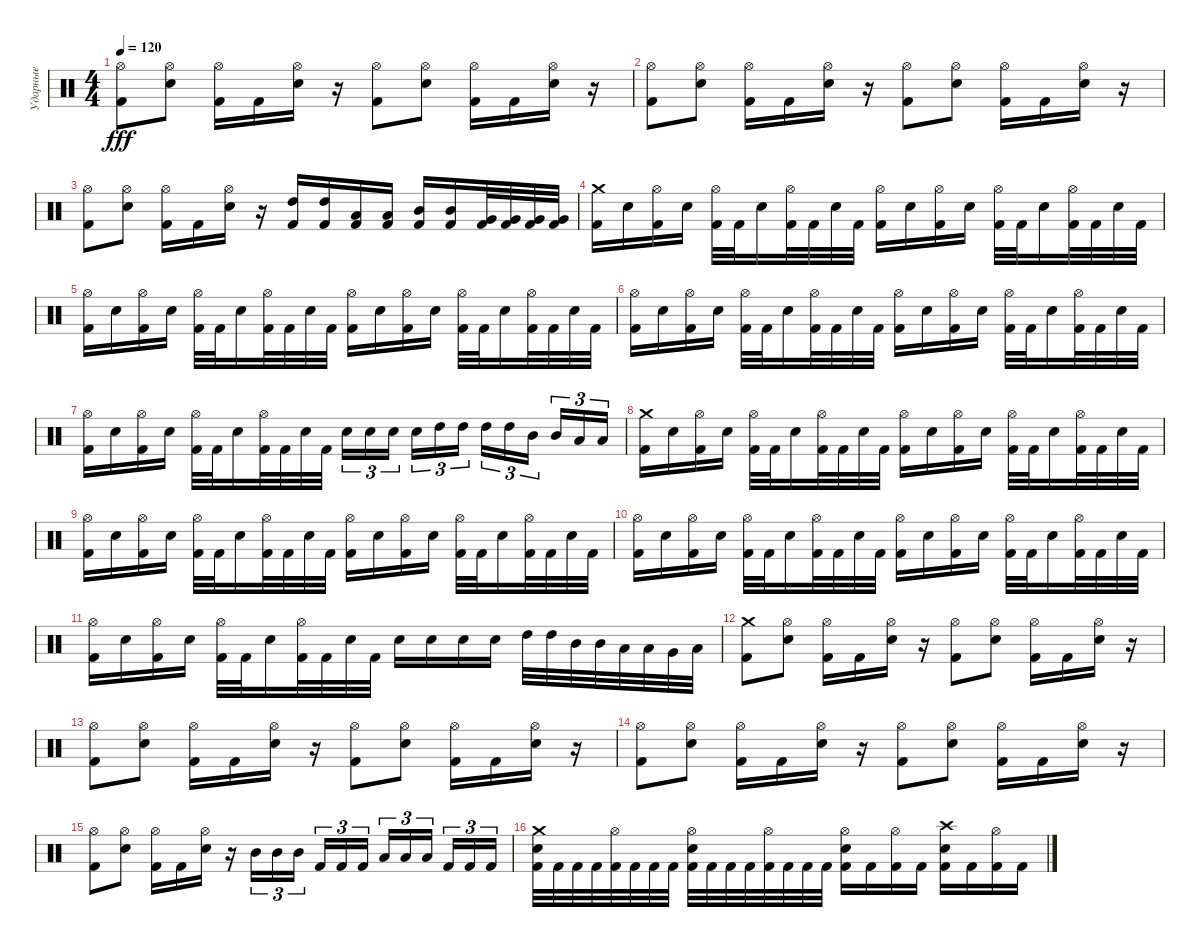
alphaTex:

\track ("Ударные" "Ударные") {instrument percussion}
\staff {score}
\articulation defaults
\ts (4 4)
\tempo 120
\clef neutral
\ks c
("Hi-Hat (open)" "Kick (hit) 2").8{dy fff} ("Hi-Hat (open)" "Electric Snare (hit)").8 ("Hi-Hat (open)" "Kick (hit) 2").16 "Kick (hit) 2".16 ("Hi-Hat (open)" "Electric Snare (hit)").16 r.16 ("Hi-Hat (open)" "Kick (hit) 2").8 ("Hi-Hat (open)" "Electric Snare (hit)").8 ("Hi-Hat (open)" "Kick (hit) 2").16 "Kick (hit) 2".16 ("Hi-Hat (open)" "Electric Snare (hit)").16 r.16 |
("Hi-Hat (open)" "Kick (hit) 2").8 ("Hi-Hat (open)" "Electric Snare (hit)").8 ("Hi-Hat (open)" "Kick (hit) 2").16 "Kick (hit) 2".16 ("Hi-Hat (open)" "Electric Snare (hit)").16 r.16 ("Hi-Hat (open)" "Kick (hit) 2").8 ("Hi-Hat (open)" "Electric Snare (hit)").8 ("Hi-Hat (open)" "Kick (hit) 2").16 "Kick (hit) 2".16 ("Hi-Hat (open)" "Electric Snare (hit)").16 r.16 |
("Hi-Hat (open)" "Kick (hit) 2").8 ("Hi-Hat (open)" "Electric Snare (hit)").8 ("Hi-Hat (open)" "Kick (hit) 2").16 "Kick (hit) 2".16 ("Hi-Hat (open)" "Electric Snare (hit)").16 r.16 ("High Tom (hit)" "Kick (hit) 2").16 ("High Tom (hit)" "Kick (hit) 2").16 ("Low Tom (hit)" "Kick (hit) 2").16 ("Low Tom (hit)" "Kick (hit) 2").16 ("Mid Tom (hit)" "Kick (hit) 2").16 ("Mid Tom (hit)" "Kick (hit) 2").16 ("Very Low Tom (hit)" "Kick (hit) 2").32 ("Very Low Tom (hit)" "Kick (hit) 2").32 ("Very Low Tom (hit)" "Kick (hit) 2").32 ("Very Low Tom (hit)" "Kick (hit) 2").32 |
("Crash medium (hit)" "Kick (hit) 2").16 "Electric Snare (hit)".16 ("Hi-Hat (open)" "Kick (hit) 2").16 "Electric Snare (hit)".16 ("Hi-Hat (open)" "Kick (hit) 2").32 "Kick (hit) 2".32 "Electric Snare (hit)".16 ("Hi-Hat (open)" "Kick (hit) 2").32 "Kick (hit) 2".32 "Electric Snare (hit)".32 "Kick (hit) 2".32 ("Hi-Hat (open)" "Kick (hit) 2").16 "Electric Snare (hit)".16 ("Hi-Hat (open)" "Kick (hit) 2").16 "Electric Snare (hit)".16 ("Hi-Hat (open)" "Kick (hit) 2").32 "Kick (hit) 2".32 "Electric Snare (hit)".16 ("Hi-Hat (open)" "Kick (hit) 2").32 "Kick (hit) 2".32 "Electric Snare (hit)".32 "Kick (hit) 2".32 |
("Hi-Hat (open)" "Kick (hit) 2").16 "Electric Snare (hit)".16 ("Hi-Hat (open)" "Kick (hit) 2").16 "Electric Snare (hit)".16 ("Hi-Hat (open)" "Kick (hit) 2").32 "Kick (hit) 2".32 "Electric Snare (hit)".16 ("Hi-Hat (open)" "Kick (hit) 2").32 "Kick (hit) 2".32 "Electric Snare (hit)".32 "Kick (hit) 2".32 ("Hi-Hat (open)" "Kick (hit) 2").16 "Electric Snare (hit)".16 ("Hi-Hat (open)" "Kick (hit) 2").16 "Electric Snare (hit)".16 ("Hi-Hat (open)" "Kick (hit) 2").32 "Kick (hit) 2".32 "Electric Snare (hit)".16 ("Hi-Hat (open)" "Kick (hit) 2").32 "Kick (hit) 2".32 "Electric Snare (hit)".32 "Kick (hit) 2".32 |
("Hi-Hat (open)" "Kick (hit) 2").16 "Electric Snare (hit)".16 ("Hi-Hat (open)" "Kick (hit) 2").16 "Electric Snare (hit)".16 ("Hi-Hat (open)" "Kick (hit) 2").32 "Kick (hit) 2".32 "Electric Snare (hit)".16 ("Hi-Hat (open)" "Kick (hit) 2").32 "Kick (hit) 2".32 "Electric Snare (hit)".32 "Kick (hit) 2".32 ("Hi-Hat (open)" "Kick (hit) 2").16 "Electric Snare (hit)".16 ("Hi-Hat (open)" "Kick (hit) 2").16 "Electric Snare (hit)".16 ("Hi-Hat (open)" "Kick (hit) 2").32 "Kick (hit) 2".32 "Electric Snare (hit)".16 ("Hi-Hat (open)" "Kick (hit) 2").32 "Kick (hit) 2".32 "Electric Snare (hit)".32 "Kick (hit) 2".32 |
("Hi-Hat (open)" "Kick (hit) 2").16 "Electric Snare (hit)".16 ("Hi-Hat (open)" "Kick (hit) 2").16 "Electric Snare (hit)".16 ("Hi-Hat (open)" "Kick (hit) 2").32 "Kick (hit) 2".32 "Electric Snare (hit)".16 ("Hi-Hat (open)" "Kick (hit) 2").32 "Kick (hit) 2".32 "Electric Snare (hit)".32 "Kick (hit) 2".32 "Electric Snare (hit)".16{tu (3 2)} "Electric Snare (hit)".16{tu (3 2)} "Electric Snare (hit)".16{tu (3 2) beam splitsecondary} "Electric Snare (hit)".16{tu (3 2)} "High Tom (hit)".16{tu (3 2)} "High Tom (hit)".16{tu (3 2)} "High Tom (hit)".16{tu (3 2)} "High Tom (hit)".16{tu (3 2)} "Mid Tom (hit)".16{tu (3 2) beam splitsecondary} "Mid Tom (hit)".16{tu (3 2)} "Low Tom (hit)".16{tu (3 2)} "Low Tom (hit)".16{tu (3 2)} |
("Crash medium (hit)" "Kick (hit) 2").16 "Electric Snare (hit)".16 ("Hi-Hat (open)" "Kick (hit) 2").16 "Electric Snare (hit)".16 ("Hi-Hat (open)" "Kick (hit) 2").32 "Kick (hit) 2".32 "Electric Snare (hit)".16 ("Hi-Hat (open)" "Kick (hit) 2").32 "Kick (hit) 2".32 "Electric Snare (hit)".32 "Kick (hit) 2".32 ("Hi-Hat (open)" "Kick (hit) 2").16 "Electric Snare (hit)".16 ("Hi-Hat (open)" "Kick (hit) 2").16 "Electric Snare (hit)".16 ("Hi-Hat (open)" "Kick (hit) 2").32 "Kick (hit) 2".32 "Electric Snare (hit)".16 ("Hi-Hat (open)" "Kick (hit) 2").32 "Kick (hit) 2".32 "Electric Snare (hit)".32 "Kick (hit) 2".32 |
("Hi-Hat (open)" "Kick (hit) 2").16 "Electric Snare (hit)".16 ("Hi-Hat (open)" "Kick (hit) 2").16 "Electric Snare (hit)".16 ("Hi-Hat (open)" "Kick (hit) 2").32 "Kick (hit) 2".32 "Electric Snare (hit)".16 ("Hi-Hat (open)" "Kick (hit) 2").32 "Kick (hit) 2".32 "Electric Snare (hit)".32 "Kick (hit) 2".32 ("Hi-Hat (open)" "Kick (hit) 2").16 "Electric Snare (hit)".16 ("Hi-Hat (open)" "Kick (hit) 2").16 "Electric Snare (hit)".16 ("Hi-Hat (open)" "Kick (hit) 2").32 "Kick (hit) 2".32 "Electric Snare (hit)".16 ("Hi-Hat (open)" "Kick (hit) 2").32 "Kick (hit) 2".32 "Electric Snare (hit)".32 "Kick (hit) 2".32 |
("Hi-Hat (open)" "Kick (hit) 2").16 "Electric Snare (hit)".16 ("Hi-Hat (open)" "Kick (hit) 2").16 "Electric Snare (hit)".16 ("Hi-Hat (open)" "Kick (hit) 2").32 "Kick (hit) 2".32 "Electric Snare (hit)".16 ("Hi-Hat (open)" "Kick (hit) 2").32 "Kick (hit) 2".32 "Electric Snare (hit)".32 "Kick (hit) 2".32 ("Hi-Hat (open)" "Kick (hit) 2").16 "Electric Snare (hit)".16 ("Hi-Hat (open)" "Kick (hit) 2").16 "Electric Snare (hit)".16 ("Hi-Hat (open)" "Kick (hit) 2").32 "Kick (hit) 2".32 "Electric Snare (hit)".16 ("Hi-Hat (open)" "Kick (hit) 2").32 "Kick (hit) 2".32 "Electric Snare (hit)".32 "Kick (hit) 2".32 |
("Hi-Hat (open)" "Kick (hit) 2").16 "Electric Snare (hit)".16 ("Hi-Hat (open)" "Kick (hit) 2").16 "Electric Snare (hit)".16 ("Hi-Hat (open)" "Kick (hit) 2").32 "Kick (hit) 2".32 "Electric Snare (hit)".16 ("Hi-Hat (open)" "Kick (hit) 2").32 "Kick (hit) 2".32 "Electric Snare (hit)".32 "Kick (hit) 2".32 "Electric Snare (hit)".16 "Electric Snare (hit)".16 "Electric Snare (hit)".16 "Electric Snare (hit)".16 "High Tom (hit)".32 "High Tom (hit)".32 "Mid Tom (hit)".32 "Mid Tom (hit)".32 "Low Tom (hit)".32 "Low Tom (hit)".32 "Very Low Tom (hit)".32 "Low Floor Tom (hit)".32 |
("Crash medium (hit)" "Kick (hit) 2").8 ("Hi-Hat (open)" "Electric Snare (hit)").8 ("Hi-Hat (open)" "Kick (hit) 2").16 "Kick (hit) 2".16 ("Hi-Hat (open)" "Electric Snare (hit)").16 r.16 ("Hi-Hat (open)" "Kick (hit) 2").8 ("Hi-Hat (open)" "Electric Snare (hit)").8 ("Hi-Hat (open)" "Kick (hit) 2").16 "Kick (hit) 2".16 ("Hi-Hat (open)" "Electric Snare (hit)").16 r.16 |
("Hi-Hat (open)" "Kick (hit) 2").8 ("Hi-Hat (open)" "Electric Snare (hit)").8 ("Hi-Hat (open)" "Kick (hit) 2").16 "Kick (hit) 2".16 ("Hi-Hat (open)" "Electric Snare (hit)").16 r.16 ("Hi-Hat (open)" "Kick (hit) 2").8 ("Hi-Hat (open)" "Electric Snare (hit)").8 ("Hi-Hat (open)" "Kick (hit) 2").16 "Kick (hit) 2".16 ("Hi-Hat (open)" "Electric Snare (hit)").16 r.16 |
("Hi-Hat (open)" "Kick (hit) 2").8 ("Hi-Hat (open)" "Electric Snare (hit)").8 ("Hi-Hat (open)" "Kick (hit) 2").16 "Kick (hit) 2".16 ("Hi-Hat (open)" "Electric Snare (hit)").16 r.16 ("Hi-Hat (open)" "Kick (hit) 2").8 ("Hi-Hat (open)" "Electric Snare (hit)").8 ("Hi-Hat (open)" "Kick (hit) 2").16 "Kick (hit) 2".16 ("Hi-Hat (open)" "Electric Snare (hit)").16 r.16 |
("Hi-Hat (open)" "Kick (hit) 2").8 ("Hi-Hat (open)" "Electric Snare (hit)").8 ("Hi-Hat (open)" "Kick (hit) 2").16 "Kick (hit) 2".16 ("Hi-Hat (open)" "Electric Snare (hit)").16 r.16 "Mid Tom (hit)".16{tu (3 2)} "Mid Tom (hit)".16{tu (3 2)} "Mid Tom (hit)".16{tu (3 2) beam splitsecondary} "Kick (hit) 2".16{tu (3 2)} "Kick (hit) 2".16{tu (3 2)} "Kick (hit) 2".16{tu (3 2)} "Low Tom (hit)".16{tu (3 2)} "Low Tom (hit)".16{tu (3 2)} "Low Tom (hit)".16{tu (3 2) beam splitsecondary} "Kick (hit) 2".16{tu (3 2)} "Kick (hit) 2".16{tu (3 2)} "Kick (hit) 2".16{tu (3 2)} |
("Crash medium (hit)" "Electric Snare (hit)" "Kick (hit) 2").32 "Kick (hit) 2".32 "Kick (hit) 2".32 "Kick (hit) 2".32 ("Hi-Hat (open)" "Kick (hit) 2").32 "Kick (hit) 2".32 "Kick (hit) 2".32 "Kick (hit) 2".32 ("Hi-Hat (open)" "Electric Snare (hit)" "Kick (hit) 2").32 "Kick (hit) 2".32 "Kick (hit) 2".32 "Kick (hit) 2".32 ("Hi-Hat (open)" "Kick (hit) 2").32 "Kick (hit) 2".32 "Kick (hit) 2".32 "Kick (hit) 2".32 ("Hi-Hat (open)" "Electric Snare (hit)" "Kick (hit) 2").16 "Kick (hit) 2".16 ("Hi-Hat (open)" "Kick (hit) 2").16 "Kick (hit) 2".16 ("Crash high (hit)" "Electric Snare (hit)" "Kick (hit) 2").16 "Kick (hit) 2".16 ("Hi-Hat (open)" "Kick (hit) 2").16 "Kick (hit) 2".16
